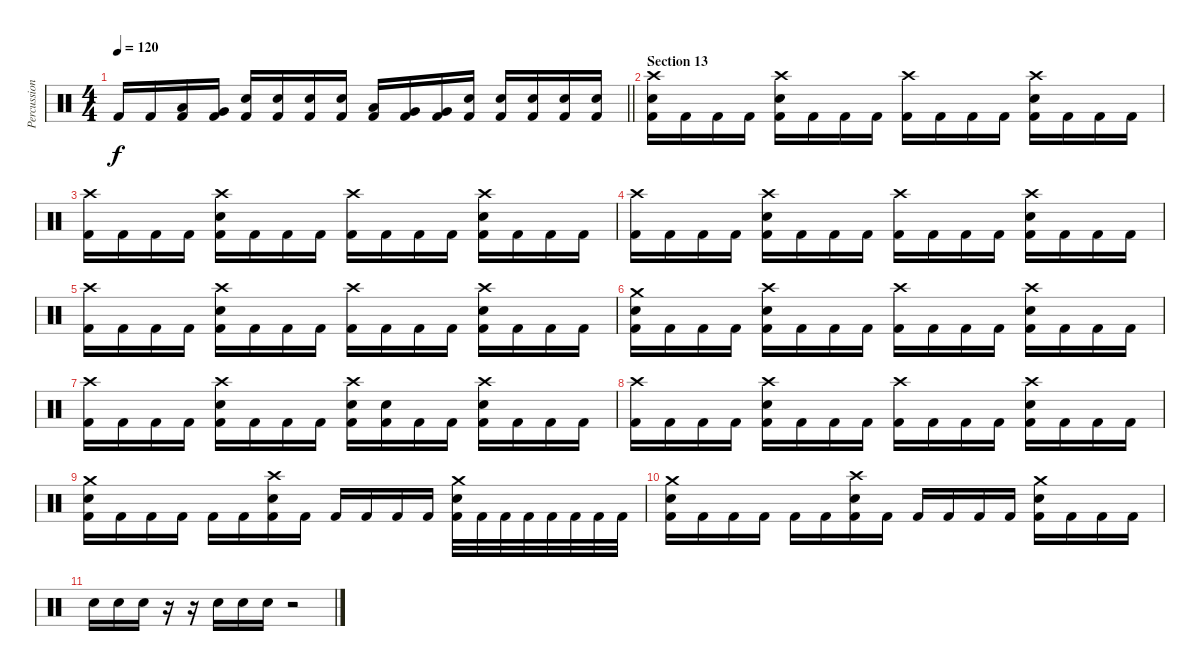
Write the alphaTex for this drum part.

\track ("Percussion" "Percussion") {instrument percussion}
\staff {score}
\articulation defaults
\ts (4 4)
\tempo 120
\clef neutral
\barLineRight lightlight
\ks c "Kick (hit) 2".16{dy f} "Kick (hit) 2".16
("Low Floor Tom (hit)" "Kick (hit) 2").16 ("Very Low Tom (hit)" "Kick (hit) 2").16 ("Electric Snare (hit)" "Kick (hit) 2").16 ("Electric Snare (hit)" "Kick (hit) 2").16 ("Electric Snare (hit)" "Kick (hit) 2").16 ("Electric Snare (hit)" "Kick (hit) 2").16 ("Low Floor Tom (hit)" "Kick (hit) 2").16 ("Very Low Tom (hit)" "Kick (hit) 2").16 ("Very Low Tom (hit)" "Kick (hit) 2").16 ("Electric Snare (hit)" "Kick (hit) 2").16 ("Electric Snare (hit)" "Kick (hit) 2").16 ("Electric Snare (hit)" "Kick (hit) 2").16 ("Electric Snare (hit)" "Kick (hit) 2").16 ("Electric Snare (hit)" "Kick (hit) 2").16 |
\section ("" "Section 13")
("Crash high (hit)" "Electric Snare (hit)" "Kick (hit) 2").16 "Kick (hit) 2".16 "Kick (hit) 2".16 "Kick (hit) 2".16 ("Crash high (hit)" "Electric Snare (hit)" "Kick (hit) 2").16 "Kick (hit) 2".16 "Kick (hit) 2".16 "Kick (hit) 2".16 ("Crash high (hit)" "Kick (hit) 2").16 "Kick (hit) 2".16 "Kick (hit) 2".16 "Kick (hit) 2".16 ("Crash high (hit)" "Electric Snare (hit)" "Kick (hit) 2").16 "Kick (hit) 2".16 "Kick (hit) 2".16 "Kick (hit) 2".16 |
("Crash high (hit)" "Kick (hit) 2").16 "Kick (hit) 2".16 "Kick (hit) 2".16 "Kick (hit) 2".16 ("Crash high (hit)" "Electric Snare (hit)" "Kick (hit) 2").16 "Kick (hit) 2".16 "Kick (hit) 2".16 "Kick (hit) 2".16 ("Crash high (hit)" "Kick (hit) 2").16 "Kick (hit) 2".16 "Kick (hit) 2".16 "Kick (hit) 2".16 ("Crash high (hit)" "Electric Snare (hit)" "Kick (hit) 2").16 "Kick (hit) 2".16 "Kick (hit) 2".16 "Kick (hit) 2".16 |
("Crash high (hit)" "Kick (hit) 2").16 "Kick (hit) 2".16 "Kick (hit) 2".16 "Kick (hit) 2".16 ("Crash high (hit)" "Electric Snare (hit)" "Kick (hit) 2").16 "Kick (hit) 2".16 "Kick (hit) 2".16 "Kick (hit) 2".16 ("Crash high (hit)" "Kick (hit) 2").16 "Kick (hit) 2".16 "Kick (hit) 2".16 "Kick (hit) 2".16 ("Crash high (hit)" "Electric Snare (hit)" "Kick (hit) 2").16 "Kick (hit) 2".16 "Kick (hit) 2".16 "Kick (hit) 2".16 |
("Crash high (hit)" "Kick (hit) 2").16 "Kick (hit) 2".16 "Kick (hit) 2".16 "Kick (hit) 2".16 ("Crash high (hit)" "Electric Snare (hit)" "Kick (hit) 2").16 "Kick (hit) 2".16 "Kick (hit) 2".16 "Kick (hit) 2".16 ("Crash high (hit)" "Kick (hit) 2").16 "Kick (hit) 2".16 "Kick (hit) 2".16 "Kick (hit) 2".16 ("Crash high (hit)" "Electric Snare (hit)" "Kick (hit) 2").16 "Kick (hit) 2".16 "Kick (hit) 2".16 "Kick (hit) 2".16 |
("Crash medium (hit)" "Electric Snare (hit)" "Kick (hit) 2").16 "Kick (hit) 2".16 "Kick (hit) 2".16 "Kick (hit) 2".16 ("Crash high (hit)" "Electric Snare (hit)" "Kick (hit) 2").16 "Kick (hit) 2".16 "Kick (hit) 2".16 "Kick (hit) 2".16 ("Crash high (hit)" "Kick (hit) 2").16 "Kick (hit) 2".16 "Kick (hit) 2".16 "Kick (hit) 2".16 ("Crash high (hit)" "Electric Snare (hit)" "Kick (hit) 2").16 "Kick (hit) 2".16 "Kick (hit) 2".16 "Kick (hit) 2".16 |
("Crash high (hit)" "Kick (hit) 2").16 "Kick (hit) 2".16 "Kick (hit) 2".16 "Kick (hit) 2".16 ("Crash high (hit)" "Electric Snare (hit)" "Kick (hit) 2").16 "Kick (hit) 2".16 "Kick (hit) 2".16 "Kick (hit) 2".16 ("Crash high (hit)" "Electric Snare (hit)" "Kick (hit) 2").16 ("Electric Snare (hit)" "Kick (hit) 2").16 "Kick (hit) 2".16 "Kick (hit) 2".16 ("Crash high (hit)" "Electric Snare (hit)" "Kick (hit) 2").16 "Kick (hit) 2".16 "Kick (hit) 2".16 "Kick (hit) 2".16 |
("Crash high (hit)" "Kick (hit) 2").16 "Kick (hit) 2".16 "Kick (hit) 2".16 "Kick (hit) 2".16 ("Crash high (hit)" "Electric Snare (hit)" "Kick (hit) 2").16 "Kick (hit) 2".16 "Kick (hit) 2".16 "Kick (hit) 2".16 ("Crash high (hit)" "Kick (hit) 2").16 "Kick (hit) 2".16 "Kick (hit) 2".16 "Kick (hit) 2".16 ("Crash high (hit)" "Electric Snare (hit)" "Kick (hit) 2").16 "Kick (hit) 2".16 "Kick (hit) 2".16 "Kick (hit) 2".16 |
("Crash medium (hit)" "Electric Snare (hit)" "Kick (hit) 2").16 "Kick (hit) 2".16 "Kick (hit) 2".16 "Kick (hit) 2".16 "Kick (hit) 2".16 "Kick (hit) 2".16 ("Crash high (hit)" "Electric Snare (hit)" "Kick (hit) 2").16 "Kick (hit) 2".16 "Kick (hit) 2".16 "Kick (hit) 2".16 "Kick (hit) 2".16 "Kick (hit) 2".16 ("Crash medium (hit)" "Electric Snare (hit)" "Kick (hit) 2").32 "Kick (hit) 2".32 "Kick (hit) 2".32 "Kick (hit) 2".32 "Kick (hit) 2".32 "Kick (hit) 2".32 "Kick (hit) 2".32 "Kick (hit) 2".32 |
("Crash medium (hit)" "Electric Snare (hit)" "Kick (hit) 2").16 "Kick (hit) 2".16 "Kick (hit) 2".16 "Kick (hit) 2".16 "Kick (hit) 2".16 "Kick (hit) 2".16 ("Crash high (hit)" "Electric Snare (hit)" "Kick (hit) 2").16 "Kick (hit) 2".16 "Kick (hit) 2".16 "Kick (hit) 2".16 "Kick (hit) 2".16 "Kick (hit) 2".16 ("Crash medium (hit)" "Electric Snare (hit)" "Kick (hit) 2").16 "Kick (hit) 2".16 "Kick (hit) 2".16 "Kick (hit) 2".16 |
"Electric Snare (hit)".16 "Electric Snare (hit)".16 "Electric Snare (hit)".16 r.16 r.16 "Electric Snare (hit)".16 "Electric Snare (hit)".16 "Electric Snare (hit)".16 r.2
